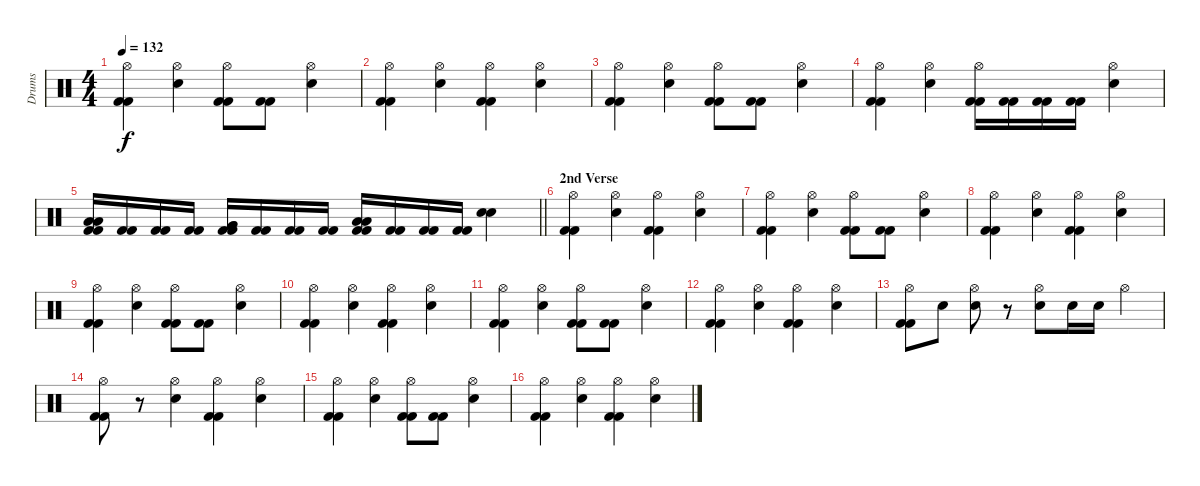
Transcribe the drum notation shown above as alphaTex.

\track ("Drums" "Drums") {instrument percussion}
\staff {score}
\articulation defaults
\ts (4 4)
\tempo 132
\clef neutral
\ks c
("Hi-Hat (open)" "Kick (hit) 2" "Kick (hit) 2").4{dy f} ("Hi-Hat (open)" "Snare (hit) 2").4 ("Hi-Hat (open)" "Kick (hit) 2" "Kick (hit) 2").8 ("Kick (hit) 2" "Kick (hit) 2").8 ("Hi-Hat (open)" "Snare (hit) 2").4 |
("Hi-Hat (open)" "Kick (hit) 2" "Kick (hit) 2").4 ("Hi-Hat (open)" "Snare (hit) 2").4 ("Hi-Hat (open)" "Kick (hit) 2" "Kick (hit) 2").4 ("Hi-Hat (open)" "Snare (hit) 2").4 |
("Hi-Hat (open)" "Kick (hit) 2" "Kick (hit) 2").4 ("Hi-Hat (open)" "Snare (hit) 2").4 ("Hi-Hat (open)" "Kick (hit) 2" "Kick (hit) 2").8 ("Kick (hit) 2" "Kick (hit) 2").8 ("Hi-Hat (open)" "Snare (hit) 2").4 |
("Hi-Hat (open)" "Kick (hit) 2" "Kick (hit) 2").4 ("Hi-Hat (open)" "Snare (hit) 2").4 ("Hi-Hat (open)" "Kick (hit) 2" "Kick (hit) 2").16 ("Kick (hit) 2" "Kick (hit) 2").16 ("Kick (hit) 2" "Kick (hit) 2").16 ("Kick (hit) 2" "Kick (hit) 2").16 ("Hi-Hat (open)" "Snare (hit) 2").4 |
\barLineRight lightlight
("Low Tom (hit)" "Low Tom (hit)" "Kick (hit) 2" "Kick (hit) 2").16 ("Kick (hit) 2" "Kick (hit) 2").16 ("Kick (hit) 2" "Kick (hit) 2").16 ("Kick (hit) 2" "Kick (hit) 2").16 ("Very Low Tom (hit)" "Very Low Tom (hit)" "Kick (hit) 2" "Kick (hit) 2").16 ("Kick (hit) 2" "Kick (hit) 2").16 ("Kick (hit) 2" "Kick (hit) 2").16 ("Kick (hit) 2" "Kick (hit) 2").16 ("Low Floor Tom (hit)" "Low Floor Tom (hit)" "Kick (hit) 2" "Kick (hit) 2").16 ("Kick (hit) 2" "Kick (hit) 2").16 ("Kick (hit) 2" "Kick (hit) 2").16 ("Kick (hit) 2" "Kick (hit) 2").16 ("Snare (hit) 2" "Snare (hit) 2").4 |
\section ("" "2nd Verse")
("Hi-Hat (open)" "Kick (hit) 2" "Kick (hit) 2").4 ("Hi-Hat (open)" "Snare (hit) 2").4 ("Hi-Hat (open)" "Kick (hit) 2" "Kick (hit) 2").4 ("Hi-Hat (open)" "Snare (hit) 2").4 |
("Hi-Hat (open)" "Kick (hit) 2" "Kick (hit) 2").4 ("Hi-Hat (open)" "Snare (hit) 2").4 ("Hi-Hat (open)" "Kick (hit) 2" "Kick (hit) 2").8 ("Kick (hit) 2" "Kick (hit) 2").8 ("Hi-Hat (open)" "Snare (hit) 2").4 |
("Hi-Hat (open)" "Kick (hit) 2" "Kick (hit) 2").4 ("Hi-Hat (open)" "Snare (hit) 2").4 ("Hi-Hat (open)" "Kick (hit) 2" "Kick (hit) 2").4 ("Hi-Hat (open)" "Snare (hit) 2").4 |
("Hi-Hat (open)" "Kick (hit) 2" "Kick (hit) 2").4 ("Hi-Hat (open)" "Snare (hit) 2").4 ("Hi-Hat (open)" "Kick (hit) 2" "Kick (hit) 2").8 ("Kick (hit) 2" "Kick (hit) 2").8 ("Hi-Hat (open)" "Snare (hit) 2").4 |
("Hi-Hat (open)" "Kick (hit) 2" "Kick (hit) 2").4 ("Hi-Hat (open)" "Snare (hit) 2").4 ("Hi-Hat (open)" "Kick (hit) 2" "Kick (hit) 2").4 ("Hi-Hat (open)" "Snare (hit) 2").4 |
("Hi-Hat (open)" "Kick (hit) 2" "Kick (hit) 2").4 ("Hi-Hat (open)" "Snare (hit) 2").4 ("Hi-Hat (open)" "Kick (hit) 2" "Kick (hit) 2").8 ("Kick (hit) 2" "Kick (hit) 2").8 ("Hi-Hat (open)" "Snare (hit) 2").4 |
("Hi-Hat (open)" "Kick (hit) 2" "Kick (hit) 2").4 ("Hi-Hat (open)" "Snare (hit) 2").4 ("Hi-Hat (open)" "Kick (hit) 2" "Kick (hit) 2").4 ("Hi-Hat (open)" "Snare (hit) 2").4 |
("Hi-Hat (open)" "Kick (hit) 2" "Kick (hit) 2").8 "Snare (hit) 2".8 ("Hi-Hat (open)" "Snare (hit) 2").8 r.8 ("Hi-Hat (open)" "Snare (hit) 2").8 "Snare (hit) 2".16 "Snare (hit) 2".16 "Hi-Hat (open)".4 |
("Hi-Hat (open)" "Kick (hit) 2" "Kick (hit) 2").8 r.8 ("Hi-Hat (open)" "Snare (hit) 2").4 ("Hi-Hat (open)" "Kick (hit) 2" "Kick (hit) 2").4 ("Hi-Hat (open)" "Snare (hit) 2").4 |
("Hi-Hat (open)" "Kick (hit) 2" "Kick (hit) 2").4 ("Hi-Hat (open)" "Snare (hit) 2").4 ("Hi-Hat (open)" "Kick (hit) 2" "Kick (hit) 2").8 ("Kick (hit) 2" "Kick (hit) 2").8 ("Hi-Hat (open)" "Snare (hit) 2").4 |
("Hi-Hat (open)" "Kick (hit) 2" "Kick (hit) 2").4 ("Hi-Hat (open)" "Snare (hit) 2").4 ("Hi-Hat (open)" "Kick (hit) 2" "Kick (hit) 2").4 ("Hi-Hat (open)" "Snare (hit) 2").4
